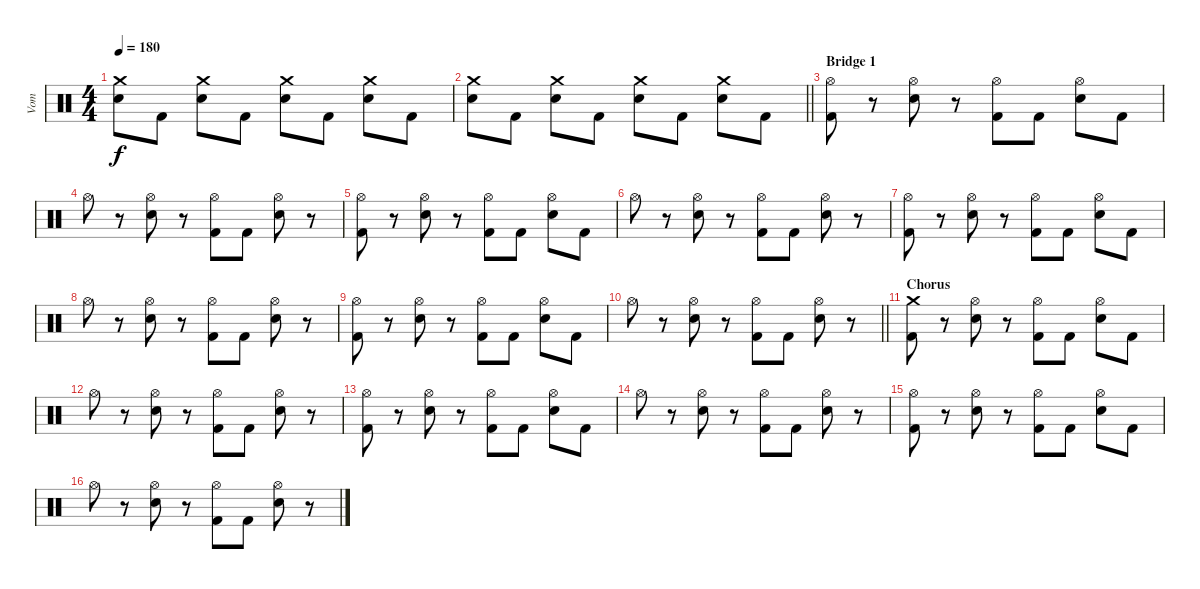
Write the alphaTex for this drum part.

\track ("Vom" "Vom") {instrument percussion}
\staff {score}
\articulation defaults
\ts (4 4)
\tempo 180
\clef neutral
\ks c
("Crash medium (hit)" "Snare (hit) 2").8{dy f} "Kick (hit) 2".8 ("Crash medium (hit)" "Snare (hit) 2").8 "Kick (hit) 2".8 ("Crash medium (hit)" "Snare (hit) 2").8 "Kick (hit) 2".8 ("Crash medium (hit)" "Snare (hit) 2").8 "Kick (hit) 2".8 |
\barLineRight lightlight
("Crash medium (hit)" "Snare (hit) 2").8 "Kick (hit) 2".8 ("Crash medium (hit)" "Snare (hit) 2").8 "Kick (hit) 2".8 ("Crash medium (hit)" "Snare (hit) 2").8 "Kick (hit) 2".8 ("Crash medium (hit)" "Snare (hit) 2").8 "Kick (hit) 2".8 |
\section ("" "Bridge 1")
("Hi-Hat (open)" "Kick (hit) 2").8 r.8 ("Hi-Hat (open)" "Snare (hit) 2").8 r.8 ("Hi-Hat (open)" "Kick (hit) 2").8 "Kick (hit) 2".8 ("Hi-Hat (open)" "Snare (hit) 2").8 "Kick (hit) 2".8 |
"Hi-Hat (open)".8 r.8 ("Hi-Hat (open)" "Snare (hit) 2").8 r.8 ("Hi-Hat (open)" "Kick (hit) 2").8 "Kick (hit) 2".8 ("Hi-Hat (open)" "Snare (hit) 2").8 r.8 |
("Hi-Hat (open)" "Kick (hit) 2").8 r.8 ("Hi-Hat (open)" "Snare (hit) 2").8 r.8 ("Hi-Hat (open)" "Kick (hit) 2").8 "Kick (hit) 2".8 ("Hi-Hat (open)" "Snare (hit) 2").8 "Kick (hit) 2".8 |
"Hi-Hat (open)".8 r.8 ("Hi-Hat (open)" "Snare (hit) 2").8 r.8 ("Hi-Hat (open)" "Kick (hit) 2").8 "Kick (hit) 2".8 ("Hi-Hat (open)" "Snare (hit) 2").8 r.8 |
("Hi-Hat (open)" "Kick (hit) 2").8 r.8 ("Hi-Hat (open)" "Snare (hit) 2").8 r.8 ("Hi-Hat (open)" "Kick (hit) 2").8 "Kick (hit) 2".8 ("Hi-Hat (open)" "Snare (hit) 2").8 "Kick (hit) 2".8 |
"Hi-Hat (open)".8 r.8 ("Hi-Hat (open)" "Snare (hit) 2").8 r.8 ("Hi-Hat (open)" "Kick (hit) 2").8 "Kick (hit) 2".8 ("Hi-Hat (open)" "Snare (hit) 2").8 r.8 |
("Hi-Hat (open)" "Kick (hit) 2").8 r.8 ("Hi-Hat (open)" "Snare (hit) 2").8 r.8 ("Hi-Hat (open)" "Kick (hit) 2").8 "Kick (hit) 2".8 ("Hi-Hat (open)" "Snare (hit) 2").8 "Kick (hit) 2".8 |
\barLineRight lightlight "Hi-Hat (open)".8
r.8 ("Hi-Hat (open)" "Snare (hit) 2").8 r.8 ("Hi-Hat (open)" "Kick (hit) 2").8 "Kick (hit) 2".8 ("Hi-Hat (open)" "Snare (hit) 2").8 r.8 |
\section ("" "Chorus")
("Crash medium (hit)" "Kick (hit) 2").8 r.8 ("Hi-Hat (open)" "Snare (hit) 2").8 r.8 ("Hi-Hat (open)" "Kick (hit) 2").8 "Kick (hit) 2".8 ("Hi-Hat (open)" "Snare (hit) 2").8 "Kick (hit) 2".8 |
"Hi-Hat (open)".8 r.8 ("Hi-Hat (open)" "Snare (hit) 2").8 r.8 ("Hi-Hat (open)" "Kick (hit) 2").8 "Kick (hit) 2".8 ("Hi-Hat (open)" "Snare (hit) 2").8 r.8 |
("Hi-Hat (open)" "Kick (hit) 2").8 r.8 ("Hi-Hat (open)" "Snare (hit) 2").8 r.8 ("Hi-Hat (open)" "Kick (hit) 2").8 "Kick (hit) 2".8 ("Hi-Hat (open)" "Snare (hit) 2").8 "Kick (hit) 2".8 |
"Hi-Hat (open)".8 r.8 ("Hi-Hat (open)" "Snare (hit) 2").8 r.8 ("Hi-Hat (open)" "Kick (hit) 2").8 "Kick (hit) 2".8 ("Hi-Hat (open)" "Snare (hit) 2").8 r.8 |
("Hi-Hat (open)" "Kick (hit) 2").8 r.8 ("Hi-Hat (open)" "Snare (hit) 2").8 r.8 ("Hi-Hat (open)" "Kick (hit) 2").8 "Kick (hit) 2".8 ("Hi-Hat (open)" "Snare (hit) 2").8 "Kick (hit) 2".8 |
"Hi-Hat (open)".8 r.8 ("Hi-Hat (open)" "Snare (hit) 2").8 r.8 ("Hi-Hat (open)" "Kick (hit) 2").8 "Kick (hit) 2".8 ("Hi-Hat (open)" "Snare (hit) 2").8 r.8
